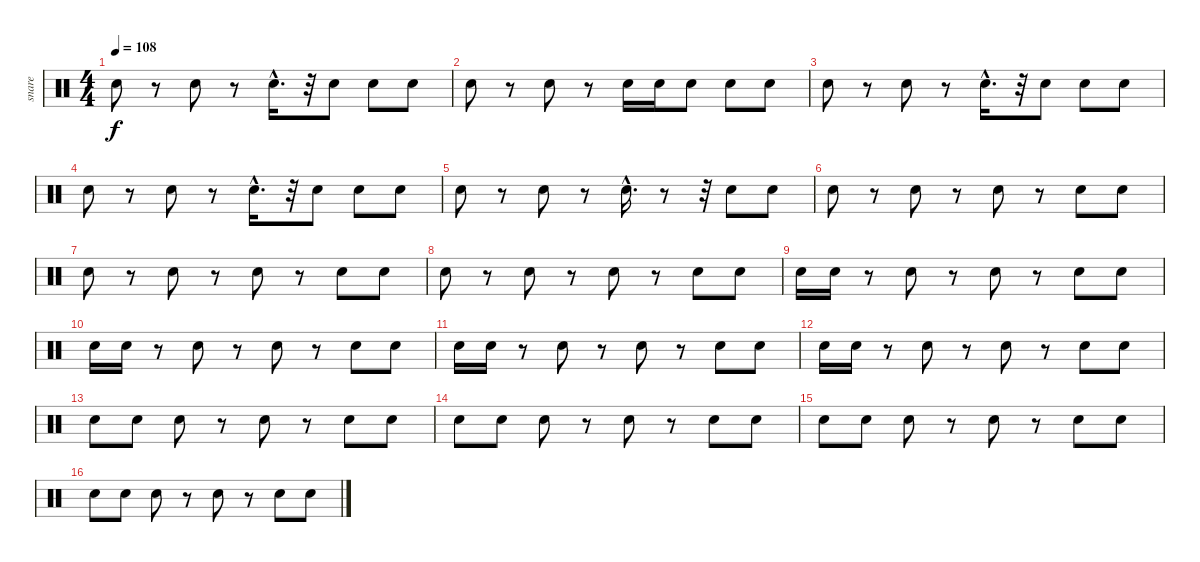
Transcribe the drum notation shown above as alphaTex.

\track ("snare               " "snare     ") {instrument percussion}
\staff {score}
\articulation defaults
\ts (4 4)
\tempo 108
\clef neutral
\ks c "Snare (hit) 2".8{dy f}
r.8 "Snare (hit) 2".8 r.8 "Snare (hit) 2"{hac}.16{d} r.32 "Snare (hit) 2".8 "Snare (hit) 2".8 "Snare (hit) 2".8 |
"Snare (hit) 2".8 r.8 "Snare (hit) 2".8 r.8 "Snare (hit) 2".16 "Snare (hit) 2".16 "Snare (hit) 2".8 "Snare (hit) 2".8 "Snare (hit) 2".8 |
"Snare (hit) 2".8 r.8 "Snare (hit) 2".8 r.8 "Snare (hit) 2"{hac}.16{d} r.32 "Snare (hit) 2".8 "Snare (hit) 2".8 "Snare (hit) 2".8 |
"Snare (hit) 2".8 r.8 "Snare (hit) 2".8 r.8 "Snare (hit) 2"{hac}.16{d} r.32 "Snare (hit) 2".8 "Snare (hit) 2".8 "Snare (hit) 2".8 |
"Snare (hit) 2".8 r.8 "Snare (hit) 2".8 r.8 "Snare (hit) 2"{hac}.16{d} r.8 r.32 "Snare (hit) 2".8 "Snare (hit) 2".8 |
"Snare (hit) 2".8 r.8 "Snare (hit) 2".8 r.8 "Snare (hit) 2".8 r.8 "Snare (hit) 2".8 "Snare (hit) 2".8 |
"Snare (hit) 2".8 r.8 "Snare (hit) 2".8 r.8 "Snare (hit) 2".8 r.8 "Snare (hit) 2".8 "Snare (hit) 2".8 |
"Snare (hit) 2".8 r.8 "Snare (hit) 2".8 r.8 "Snare (hit) 2".8 r.8 "Snare (hit) 2".8 "Snare (hit) 2".8 |
"Snare (hit) 2".16 "Snare (hit) 2".16 r.8 "Snare (hit) 2".8 r.8 "Snare (hit) 2".8 r.8 "Snare (hit) 2".8 "Snare (hit) 2".8 |
"Snare (hit) 2".16 "Snare (hit) 2".16 r.8 "Snare (hit) 2".8 r.8 "Snare (hit) 2".8 r.8 "Snare (hit) 2".8 "Snare (hit) 2".8 |
"Snare (hit) 2".16 "Snare (hit) 2".16 r.8 "Snare (hit) 2".8 r.8 "Snare (hit) 2".8 r.8 "Snare (hit) 2".8 "Snare (hit) 2".8 |
"Snare (hit) 2".16 "Snare (hit) 2".16 r.8 "Snare (hit) 2".8 r.8 "Snare (hit) 2".8 r.8 "Snare (hit) 2".8 "Snare (hit) 2".8 |
"Snare (hit) 2".8 "Snare (hit) 2".8 "Snare (hit) 2".8 r.8 "Snare (hit) 2".8 r.8 "Snare (hit) 2".8 "Snare (hit) 2".8 |
"Snare (hit) 2".8 "Snare (hit) 2".8 "Snare (hit) 2".8 r.8 "Snare (hit) 2".8 r.8 "Snare (hit) 2".8 "Snare (hit) 2".8 |
"Snare (hit) 2".8 "Snare (hit) 2".8 "Snare (hit) 2".8 r.8 "Snare (hit) 2".8 r.8 "Snare (hit) 2".8 "Snare (hit) 2".8 |
"Snare (hit) 2".8 "Snare (hit) 2".8 "Snare (hit) 2".8 r.8 "Snare (hit) 2".8 r.8 "Snare (hit) 2".8 "Snare (hit) 2".8
